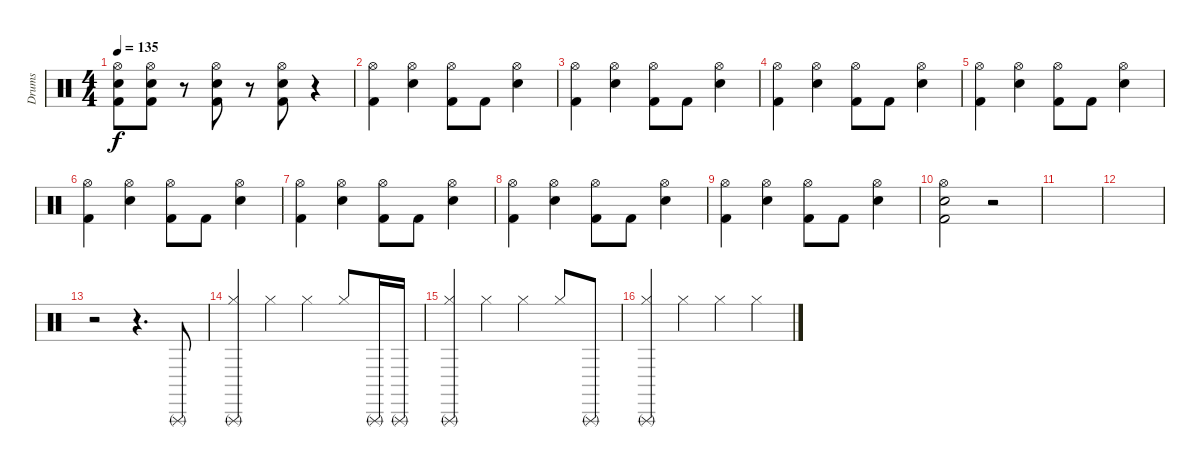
\track ("Drums" "Drums") {instrument percussion}
\staff {score}
\articulation defaults
\ts (4 4)
\tempo 135
\clef neutral
\ks c
("Hi-Hat (open)" "Electric Snare (hit)" "Kick (hit) 2").8{dy f} ("Hi-Hat (open)" "Electric Snare (hit)" "Kick (hit) 2").8 r.8 ("Hi-Hat (open)" "Electric Snare (hit)" "Kick (hit) 2").8 r.8 ("Hi-Hat (open)" "Electric Snare (hit)" "Kick (hit) 2").8 r.4 |
("Hi-Hat (open)" "Kick (hit) 2").4 ("Hi-Hat (open)" "Electric Snare (hit)").4 ("Hi-Hat (open)" "Kick (hit) 2").8 "Kick (hit) 2".8 ("Hi-Hat (open)" "Electric Snare (hit)").4 |
("Hi-Hat (open)" "Kick (hit) 2").4 ("Hi-Hat (open)" "Electric Snare (hit)").4 ("Hi-Hat (open)" "Kick (hit) 2").8 "Kick (hit) 2".8 ("Hi-Hat (open)" "Electric Snare (hit)").4 |
("Hi-Hat (open)" "Kick (hit) 2").4 ("Hi-Hat (open)" "Electric Snare (hit)").4 ("Hi-Hat (open)" "Kick (hit) 2").8 "Kick (hit) 2".8 ("Hi-Hat (open)" "Electric Snare (hit)").4 |
("Hi-Hat (open)" "Kick (hit) 2").4 ("Hi-Hat (open)" "Electric Snare (hit)").4 ("Hi-Hat (open)" "Kick (hit) 2").8 "Kick (hit) 2".8 ("Hi-Hat (open)" "Electric Snare (hit)").4 |
("Hi-Hat (open)" "Kick (hit) 2").4 ("Hi-Hat (open)" "Electric Snare (hit)").4 ("Hi-Hat (open)" "Kick (hit) 2").8 "Kick (hit) 2".8 ("Hi-Hat (open)" "Electric Snare (hit)").4 |
("Hi-Hat (open)" "Kick (hit) 2").4 ("Hi-Hat (open)" "Electric Snare (hit)").4 ("Hi-Hat (open)" "Kick (hit) 2").8 "Kick (hit) 2".8 ("Hi-Hat (open)" "Electric Snare (hit)").4 |
("Hi-Hat (open)" "Kick (hit) 2").4 ("Hi-Hat (open)" "Electric Snare (hit)").4 ("Hi-Hat (open)" "Kick (hit) 2").8 "Kick (hit) 2".8 ("Hi-Hat (open)" "Electric Snare (hit)").4 |
("Hi-Hat (open)" "Kick (hit) 2").4 ("Hi-Hat (open)" "Electric Snare (hit)").4 ("Hi-Hat (open)" "Kick (hit) 2").8 "Kick (hit) 2".8 ("Hi-Hat (open)" "Electric Snare (hit)").4 |
("Hi-Hat (open)" "Electric Snare (hit)" "Kick (hit) 2").2 r.2 |
|
|
r.2 r.4{d} "Triangle (rnute)".8 |
("Hi-Hat (closed)" "Triangle (rnute)").4 "Hi-Hat (closed)".4 "Hi-Hat (closed)".4 "Hi-Hat (closed)".8 "Triangle (rnute)".16 "Triangle (rnute)".16 |
("Hi-Hat (closed)" "Triangle (rnute)").4 "Hi-Hat (closed)".4 "Hi-Hat (closed)".4 "Hi-Hat (closed)".8 "Triangle (rnute)".8 |
("Hi-Hat (closed)" "Triangle (rnute)").4 "Hi-Hat (closed)".4 "Hi-Hat (closed)".4 "Hi-Hat (closed)".4
